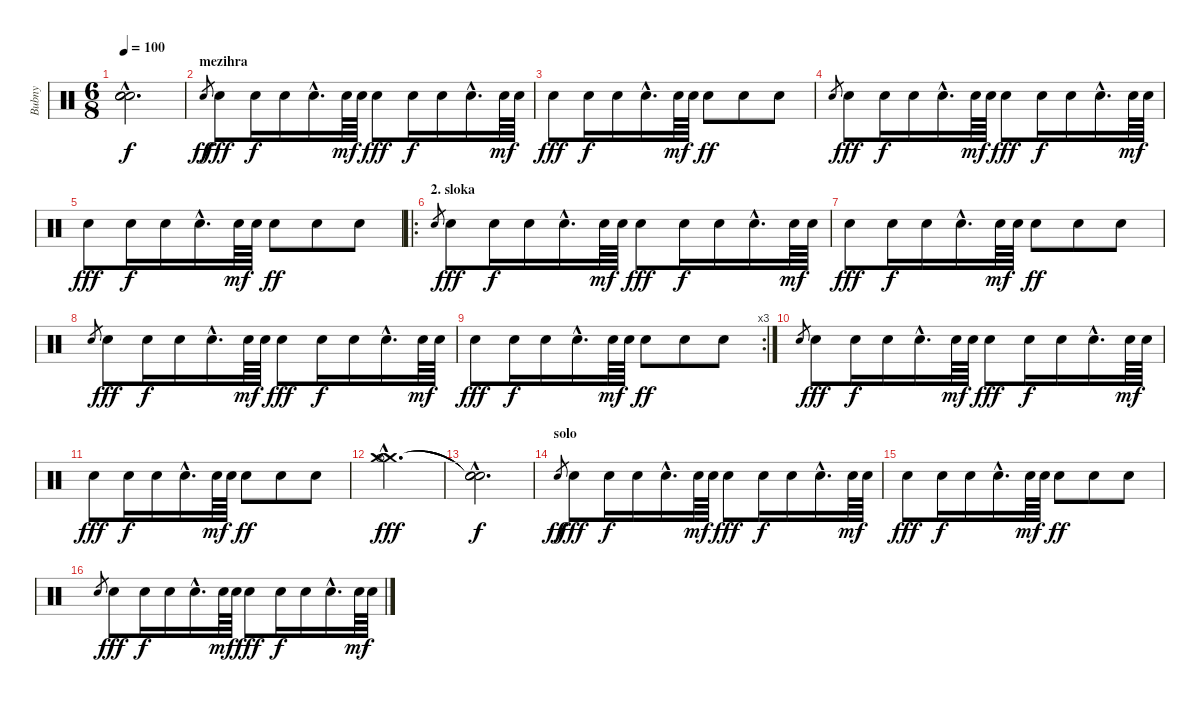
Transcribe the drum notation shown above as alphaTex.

\track ("Bubny" "Bubny") {instrument percussion}
\staff {score}
\articulation defaults
\ts (6 8)
\tempo 100
\clef neutral
\ks c
("Snare (hit)"{hac t} "Snare (hit)"{hac t} "Snare (hit)"{hac t}).2{d dy f} |
\section ("" "mezihra")
"Electric Snare (hit)".8{gr dy ff} "Electric Snare (hit)".8{dy fff} "Electric Snare (hit)".16{dy f} "Electric Snare (hit)".16 "Electric Snare (hit)"{hac}.16{d} "Electric Snare (hit)".64{dy mf} "Electric Snare (hit)".64 "Electric Snare (hit)".8{dy fff} "Electric Snare (hit)".16{dy f} "Electric Snare (hit)".16 "Electric Snare (hit)"{hac}.16{d} "Electric Snare (hit)".64{dy mf} "Electric Snare (hit)".64 |
"Electric Snare (hit)".8{dy fff} "Electric Snare (hit)".16{dy f} "Electric Snare (hit)".16 "Electric Snare (hit)"{hac}.16{d} "Electric Snare (hit)".64{dy mf} "Electric Snare (hit)".64 "Electric Snare (hit)".8{dy ff} "Electric Snare (hit)".8 "Electric Snare (hit)".8 |
"Electric Snare (hit)".8{gr} "Electric Snare (hit)".8{dy fff} "Electric Snare (hit)".16{dy f} "Electric Snare (hit)".16 "Electric Snare (hit)"{hac}.16{d} "Electric Snare (hit)".64{dy mf} "Electric Snare (hit)".64 "Electric Snare (hit)".8{dy fff} "Electric Snare (hit)".16{dy f} "Electric Snare (hit)".16 "Electric Snare (hit)"{hac}.16{d} "Electric Snare (hit)".64{dy mf} "Electric Snare (hit)".64 |
"Electric Snare (hit)".8{dy fff} "Electric Snare (hit)".16{dy f} "Electric Snare (hit)".16 "Electric Snare (hit)"{hac}.16{d} "Electric Snare (hit)".64{dy mf} "Electric Snare (hit)".64 "Electric Snare (hit)".8{dy ff} "Electric Snare (hit)".8 "Electric Snare (hit)".8 |
\ro
\section ("" "2. sloka")
"Electric Snare (hit)".8{gr} "Electric Snare (hit)".8{dy fff} "Electric Snare (hit)".16{dy f} "Electric Snare (hit)".16 "Electric Snare (hit)"{hac}.16{d} "Electric Snare (hit)".64{dy mf} "Electric Snare (hit)".64 "Electric Snare (hit)".8{dy fff} "Electric Snare (hit)".16{dy f} "Electric Snare (hit)".16 "Electric Snare (hit)"{hac}.16{d} "Electric Snare (hit)".64{dy mf} "Electric Snare (hit)".64 |
"Electric Snare (hit)".8{dy fff} "Electric Snare (hit)".16{dy f} "Electric Snare (hit)".16 "Electric Snare (hit)"{hac}.16{d} "Electric Snare (hit)".64{dy mf} "Electric Snare (hit)".64 "Electric Snare (hit)".8{dy ff} "Electric Snare (hit)".8 "Electric Snare (hit)".8 |
"Electric Snare (hit)".8{gr} "Electric Snare (hit)".8{dy fff} "Electric Snare (hit)".16{dy f} "Electric Snare (hit)".16 "Electric Snare (hit)"{hac}.16{d} "Electric Snare (hit)".64{dy mf} "Electric Snare (hit)".64 "Electric Snare (hit)".8{dy fff} "Electric Snare (hit)".16{dy f} "Electric Snare (hit)".16 "Electric Snare (hit)"{hac}.16{d} "Electric Snare (hit)".64{dy mf} "Electric Snare (hit)".64 |
\rc 3 "Electric Snare (hit)".8{dy fff} "Electric Snare (hit)".16{dy f} "Electric Snare (hit)".16 "Electric Snare (hit)"{hac}.16{d} "Electric Snare (hit)".64{dy mf} "Electric Snare (hit)".64 "Electric Snare (hit)".8{dy ff} "Electric Snare (hit)".8 "Electric Snare (hit)".8
|
"Electric Snare (hit)".8{gr} "Electric Snare (hit)".8{dy fff} "Electric Snare (hit)".16{dy f} "Electric Snare (hit)".16 "Electric Snare (hit)"{hac}.16{d} "Electric Snare (hit)".64{dy mf} "Electric Snare (hit)".64 "Electric Snare (hit)".8{dy fff} "Electric Snare (hit)".16{dy f} "Electric Snare (hit)".16 "Electric Snare (hit)"{hac}.16{d} "Electric Snare (hit)".64{dy mf} "Electric Snare (hit)".64 |
"Electric Snare (hit)".8{dy fff} "Electric Snare (hit)".16{dy f} "Electric Snare (hit)".16 "Electric Snare (hit)"{hac}.16{d} "Electric Snare (hit)".64{dy mf} "Electric Snare (hit)".64 "Electric Snare (hit)".8{dy ff} "Electric Snare (hit)".8 "Electric Snare (hit)".8 |
("Crash medium (hit)"{hac} "Crash medium (hit)"{hac} "Hi-Hat (open)"{hac}).2{d dy fff} |
("Snare (hit)"{hac t} "Snare (hit)"{hac t} "Snare (hit)"{hac t}).2{d dy f} |
\section ("" "solo")
"Electric Snare (hit)".8{gr dy ff} "Electric Snare (hit)".8{dy fff} "Electric Snare (hit)".16{dy f} "Electric Snare (hit)".16 "Electric Snare (hit)"{hac}.16{d} "Electric Snare (hit)".64{dy mf} "Electric Snare (hit)".64 "Electric Snare (hit)".8{dy fff} "Electric Snare (hit)".16{dy f} "Electric Snare (hit)".16 "Electric Snare (hit)"{hac}.16{d} "Electric Snare (hit)".64{dy mf} "Electric Snare (hit)".64 |
"Electric Snare (hit)".8{dy fff} "Electric Snare (hit)".16{dy f} "Electric Snare (hit)".16 "Electric Snare (hit)"{hac}.16{d} "Electric Snare (hit)".64{dy mf} "Electric Snare (hit)".64 "Electric Snare (hit)".8{dy ff} "Electric Snare (hit)".8 "Electric Snare (hit)".8 |
"Electric Snare (hit)".8{gr} "Electric Snare (hit)".8{dy fff} "Electric Snare (hit)".16{dy f} "Electric Snare (hit)".16 "Electric Snare (hit)"{hac}.16{d} "Electric Snare (hit)".64{dy mf} "Electric Snare (hit)".64 "Electric Snare (hit)".8{dy fff} "Electric Snare (hit)".16{dy f} "Electric Snare (hit)".16 "Electric Snare (hit)"{hac}.16{d} "Electric Snare (hit)".64{dy mf} "Electric Snare (hit)".64
